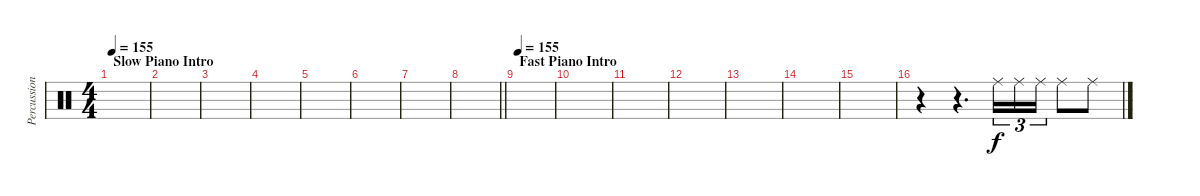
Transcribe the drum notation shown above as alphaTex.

\track ("Percussion" "Percussion") {instrument percussion}
\staff {score}
\articulation defaults
\ts (4 4)
\section ("" "Slow Piano Intro")
\tempo 155
\tempo 130
\tempo 155
\clef neutral
\ks c
|
|
|
|
|
|
|
\barLineRight lightlight
|
\section ("" "Fast Piano Intro")
\tempo 155
|
|
|
|
|
|
|
r.4 r.4{d} "Ride (middle)".16{tu (3 2)} "Ride (middle)".16{tu (3 2)} "Ride (middle)".16{tu (3 2)} "Ride (middle)".8 "Ride (middle)".8
